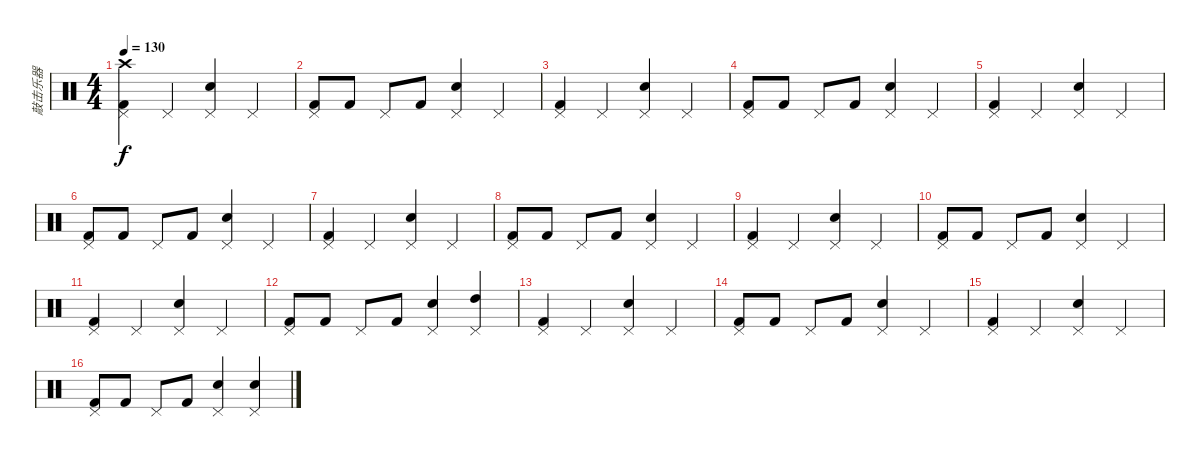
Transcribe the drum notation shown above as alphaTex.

\track ("敲击乐器" "敲击乐器") {instrument percussion}
\staff {score}
\articulation defaults
\ts (4 4)
\tempo 130
\clef neutral
\ks c
("Crash high (hit)" "Kick (hit) 2" "Pedal Hi-Hat (hit)").4{dy f} "Pedal Hi-Hat (hit)".4 ("Pedal Hi-Hat (hit)" "Electric Snare (hit)").4 "Pedal Hi-Hat (hit)".4 |
("Pedal Hi-Hat (hit)" "Kick (hit) 2").8 "Kick (hit) 2".8 "Pedal Hi-Hat (hit)".8 "Kick (hit) 2".8 ("Pedal Hi-Hat (hit)" "Electric Snare (hit)").4 "Pedal Hi-Hat (hit)".4 |
("Kick (hit) 2" "Pedal Hi-Hat (hit)").4 "Pedal Hi-Hat (hit)".4 ("Pedal Hi-Hat (hit)" "Electric Snare (hit)").4 "Pedal Hi-Hat (hit)".4 |
("Pedal Hi-Hat (hit)" "Kick (hit) 2").8 "Kick (hit) 2".8 "Pedal Hi-Hat (hit)".8 "Kick (hit) 2".8 ("Pedal Hi-Hat (hit)" "Electric Snare (hit)").4 "Pedal Hi-Hat (hit)".4 |
("Kick (hit) 2" "Pedal Hi-Hat (hit)").4 "Pedal Hi-Hat (hit)".4 ("Pedal Hi-Hat (hit)" "Electric Snare (hit)").4 "Pedal Hi-Hat (hit)".4 |
("Pedal Hi-Hat (hit)" "Kick (hit) 2").8 "Kick (hit) 2".8 "Pedal Hi-Hat (hit)".8 "Kick (hit) 2".8 ("Pedal Hi-Hat (hit)" "Electric Snare (hit)").4 "Pedal Hi-Hat (hit)".4 |
("Kick (hit) 2" "Pedal Hi-Hat (hit)").4 "Pedal Hi-Hat (hit)".4 ("Pedal Hi-Hat (hit)" "Electric Snare (hit)").4 "Pedal Hi-Hat (hit)".4 |
("Pedal Hi-Hat (hit)" "Kick (hit) 2").8 "Kick (hit) 2".8 "Pedal Hi-Hat (hit)".8 "Kick (hit) 2".8 ("Pedal Hi-Hat (hit)" "Electric Snare (hit)").4 "Pedal Hi-Hat (hit)".4 |
("Kick (hit) 2" "Pedal Hi-Hat (hit)").4 "Pedal Hi-Hat (hit)".4 ("Pedal Hi-Hat (hit)" "Electric Snare (hit)").4 "Pedal Hi-Hat (hit)".4 |
("Pedal Hi-Hat (hit)" "Kick (hit) 2").8 "Kick (hit) 2".8 "Pedal Hi-Hat (hit)".8 "Kick (hit) 2".8 ("Pedal Hi-Hat (hit)" "Electric Snare (hit)").4 "Pedal Hi-Hat (hit)".4 |
("Kick (hit) 2" "Pedal Hi-Hat (hit)").4 "Pedal Hi-Hat (hit)".4 ("Pedal Hi-Hat (hit)" "Electric Snare (hit)").4 "Pedal Hi-Hat (hit)".4 |
("Pedal Hi-Hat (hit)" "Kick (hit) 2").8 "Kick (hit) 2".8 "Pedal Hi-Hat (hit)".8 "Kick (hit) 2".8 ("Pedal Hi-Hat (hit)" "Electric Snare (hit)").4 ("Pedal Hi-Hat (hit)" "High Tom (hit)").4 |
("Kick (hit) 2" "Pedal Hi-Hat (hit)").4 "Pedal Hi-Hat (hit)".4 ("Pedal Hi-Hat (hit)" "Electric Snare (hit)").4 "Pedal Hi-Hat (hit)".4 |
("Pedal Hi-Hat (hit)" "Kick (hit) 2").8 "Kick (hit) 2".8 "Pedal Hi-Hat (hit)".8 "Kick (hit) 2".8 ("Pedal Hi-Hat (hit)" "Electric Snare (hit)").4 "Pedal Hi-Hat (hit)".4 |
("Kick (hit) 2" "Pedal Hi-Hat (hit)").4 "Pedal Hi-Hat (hit)".4 ("Pedal Hi-Hat (hit)" "Electric Snare (hit)").4 "Pedal Hi-Hat (hit)".4 |
("Pedal Hi-Hat (hit)" "Kick (hit) 2").8 "Kick (hit) 2".8 "Pedal Hi-Hat (hit)".8 "Kick (hit) 2".8 ("Pedal Hi-Hat (hit)" "Electric Snare (hit)").4 ("Pedal Hi-Hat (hit)" "Electric Snare (hit)").4
